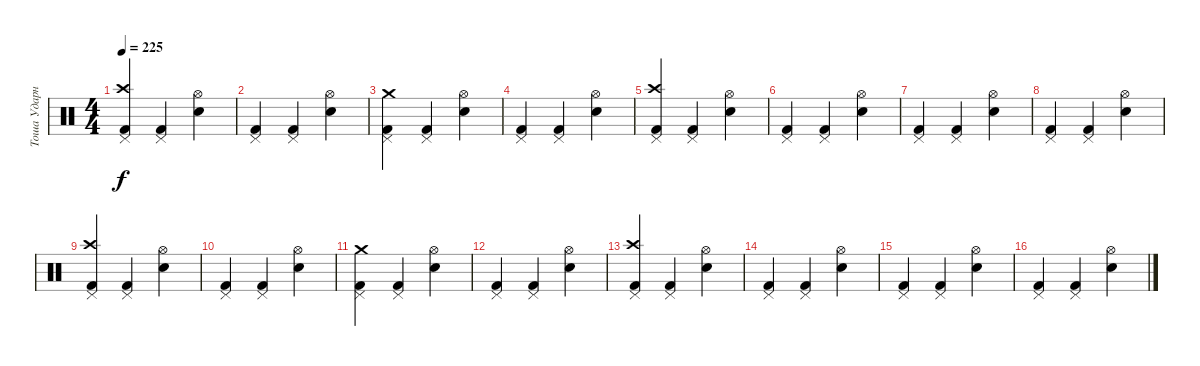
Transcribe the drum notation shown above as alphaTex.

\track ("Тоша Ударные" "Тоша Ударн") {instrument percussion}
\staff {score}
\articulation defaults
\ts (4 4)
\tempo 225
\clef neutral
\ks c
("Pedal Hi-Hat (hit)" "Crash high (hit)" "Kick (hit) 2").4{dy f} ("Pedal Hi-Hat (hit)" "Kick (hit) 2").4 ("Hi-Hat (open)" "Electric Snare (hit)").4 |
("Pedal Hi-Hat (hit)" "Kick (hit) 2").4 ("Pedal Hi-Hat (hit)" "Kick (hit) 2").4 ("Hi-Hat (open)" "Electric Snare (hit)").4 |
("Pedal Hi-Hat (hit)" "Crash medium (hit)" "Kick (hit) 2").4 ("Pedal Hi-Hat (hit)" "Kick (hit) 2").4 ("Hi-Hat (open)" "Electric Snare (hit)").4 |
("Pedal Hi-Hat (hit)" "Kick (hit) 2").4 ("Pedal Hi-Hat (hit)" "Kick (hit) 2").4 ("Hi-Hat (open)" "Electric Snare (hit)").4 |
("Pedal Hi-Hat (hit)" "Crash high (hit)" "Kick (hit) 2").4 ("Pedal Hi-Hat (hit)" "Kick (hit) 2").4 ("Hi-Hat (open)" "Electric Snare (hit)").4 |
("Pedal Hi-Hat (hit)" "Kick (hit) 2").4 ("Pedal Hi-Hat (hit)" "Kick (hit) 2").4 ("Hi-Hat (open)" "Electric Snare (hit)").4 |
("Pedal Hi-Hat (hit)" "Kick (hit) 2").4 ("Pedal Hi-Hat (hit)" "Kick (hit) 2").4 ("Hi-Hat (open)" "Electric Snare (hit)").4 |
("Pedal Hi-Hat (hit)" "Kick (hit) 2").4 ("Pedal Hi-Hat (hit)" "Kick (hit) 2").4 ("Hi-Hat (open)" "Electric Snare (hit)").4 |
("Pedal Hi-Hat (hit)" "Crash high (hit)" "Kick (hit) 2").4 ("Pedal Hi-Hat (hit)" "Kick (hit) 2").4 ("Hi-Hat (open)" "Electric Snare (hit)").4 |
("Pedal Hi-Hat (hit)" "Kick (hit) 2").4 ("Pedal Hi-Hat (hit)" "Kick (hit) 2").4 ("Hi-Hat (open)" "Electric Snare (hit)").4 |
("Pedal Hi-Hat (hit)" "Crash medium (hit)" "Kick (hit) 2").4 ("Pedal Hi-Hat (hit)" "Kick (hit) 2").4 ("Hi-Hat (open)" "Electric Snare (hit)").4 |
("Pedal Hi-Hat (hit)" "Kick (hit) 2").4 ("Pedal Hi-Hat (hit)" "Kick (hit) 2").4 ("Hi-Hat (open)" "Electric Snare (hit)").4 |
("Pedal Hi-Hat (hit)" "Crash high (hit)" "Kick (hit) 2").4 ("Pedal Hi-Hat (hit)" "Kick (hit) 2").4 ("Hi-Hat (open)" "Electric Snare (hit)").4 |
("Pedal Hi-Hat (hit)" "Kick (hit) 2").4 ("Pedal Hi-Hat (hit)" "Kick (hit) 2").4 ("Hi-Hat (open)" "Electric Snare (hit)").4 |
("Pedal Hi-Hat (hit)" "Kick (hit) 2").4 ("Pedal Hi-Hat (hit)" "Kick (hit) 2").4 ("Hi-Hat (open)" "Electric Snare (hit)").4 |
("Pedal Hi-Hat (hit)" "Kick (hit) 2").4 ("Pedal Hi-Hat (hit)" "Kick (hit) 2").4 ("Hi-Hat (open)" "Electric Snare (hit)").4
